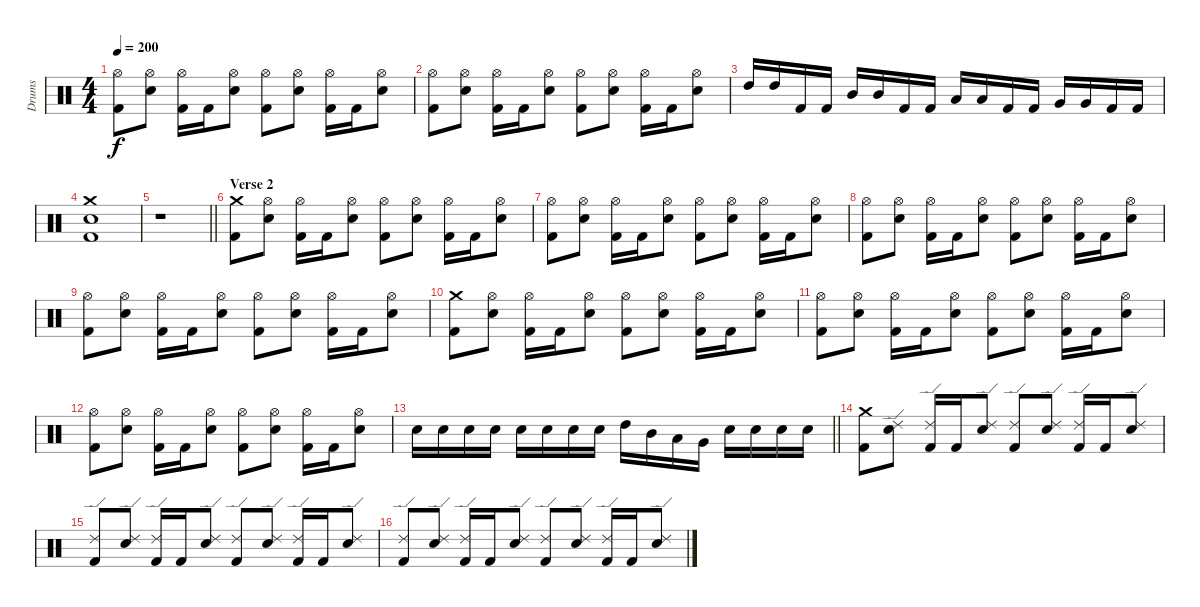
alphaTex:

\track ("Drums" "Drums") {instrument percussion}
\staff {score}
\articulation defaults
\ts (4 4)
\tempo 200
\clef neutral
\ks c
("Kick (hit) 2" "Hi-Hat (open)").8{dy f} ("Snare (hit) 2" "Hi-Hat (open)").8 ("Kick (hit) 2" "Hi-Hat (open)").16 "Kick (hit) 2".16 ("Snare (hit) 2" "Hi-Hat (open)").8 ("Kick (hit) 2" "Hi-Hat (open)").8 ("Snare (hit) 2" "Hi-Hat (open)").8 ("Kick (hit) 2" "Hi-Hat (open)").16 "Kick (hit) 2".16 ("Snare (hit) 2" "Hi-Hat (open)").8 |
("Kick (hit) 2" "Hi-Hat (open)").8 ("Snare (hit) 2" "Hi-Hat (open)").8 ("Kick (hit) 2" "Hi-Hat (open)").16 "Kick (hit) 2".16 ("Snare (hit) 2" "Hi-Hat (open)").8 ("Kick (hit) 2" "Hi-Hat (open)").8 ("Snare (hit) 2" "Hi-Hat (open)").8 ("Kick (hit) 2" "Hi-Hat (open)").16 "Kick (hit) 2".16 ("Snare (hit) 2" "Hi-Hat (open)").8 |
"High Tom (hit)".16 "High Tom (hit)".16 "Kick (hit) 2".16 "Kick (hit) 2".16 "Mid Tom (hit)".16 "Mid Tom (hit)".16 "Kick (hit) 2".16 "Kick (hit) 2".16 "Low Tom (hit)".16 "Low Tom (hit)".16 "Kick (hit) 2".16 "Kick (hit) 2".16 "Very Low Tom (hit)".16 "Very Low Tom (hit)".16 "Kick (hit) 2".16 "Kick (hit) 2".16 |
("Kick (hit) 2" "Snare (hit) 2" "Crash medium (hit)").1 |
\barLineRight lightlight
r.1 |
\section ("" "Verse 2")
("Kick (hit) 2" "Crash medium (hit)").8 ("Snare (hit) 2" "Hi-Hat (open)").8 ("Kick (hit) 2" "Hi-Hat (open)").16 "Kick (hit) 2".16 ("Snare (hit) 2" "Hi-Hat (open)").8 ("Kick (hit) 2" "Hi-Hat (open)").8 ("Snare (hit) 2" "Hi-Hat (open)").8 ("Kick (hit) 2" "Hi-Hat (open)").16 "Kick (hit) 2".16 ("Snare (hit) 2" "Hi-Hat (open)").8 |
("Kick (hit) 2" "Hi-Hat (open)").8 ("Snare (hit) 2" "Hi-Hat (open)").8 ("Kick (hit) 2" "Hi-Hat (open)").16 "Kick (hit) 2".16 ("Snare (hit) 2" "Hi-Hat (open)").8 ("Kick (hit) 2" "Hi-Hat (open)").8 ("Snare (hit) 2" "Hi-Hat (open)").8 ("Kick (hit) 2" "Hi-Hat (open)").16 "Kick (hit) 2".16 ("Snare (hit) 2" "Hi-Hat (open)").8 |
("Kick (hit) 2" "Hi-Hat (open)").8 ("Snare (hit) 2" "Hi-Hat (open)").8 ("Kick (hit) 2" "Hi-Hat (open)").16 "Kick (hit) 2".16 ("Snare (hit) 2" "Hi-Hat (open)").8 ("Kick (hit) 2" "Hi-Hat (open)").8 ("Snare (hit) 2" "Hi-Hat (open)").8 ("Kick (hit) 2" "Hi-Hat (open)").16 "Kick (hit) 2".16 ("Snare (hit) 2" "Hi-Hat (open)").8 |
("Kick (hit) 2" "Hi-Hat (open)").8 ("Snare (hit) 2" "Hi-Hat (open)").8 ("Kick (hit) 2" "Hi-Hat (open)").16 "Kick (hit) 2".16 ("Snare (hit) 2" "Hi-Hat (open)").8 ("Kick (hit) 2" "Hi-Hat (open)").8 ("Snare (hit) 2" "Hi-Hat (open)").8 ("Kick (hit) 2" "Hi-Hat (open)").16 "Kick (hit) 2".16 ("Snare (hit) 2" "Hi-Hat (open)").8 |
("Kick (hit) 2" "Crash medium (hit)").8 ("Snare (hit) 2" "Hi-Hat (open)").8 ("Kick (hit) 2" "Hi-Hat (open)").16 "Kick (hit) 2".16 ("Snare (hit) 2" "Hi-Hat (open)").8 ("Kick (hit) 2" "Hi-Hat (open)").8 ("Snare (hit) 2" "Hi-Hat (open)").8 ("Kick (hit) 2" "Hi-Hat (open)").16 "Kick (hit) 2".16 ("Snare (hit) 2" "Hi-Hat (open)").8 |
("Kick (hit) 2" "Hi-Hat (open)").8 ("Snare (hit) 2" "Hi-Hat (open)").8 ("Kick (hit) 2" "Hi-Hat (open)").16 "Kick (hit) 2".16 ("Snare (hit) 2" "Hi-Hat (open)").8 ("Kick (hit) 2" "Hi-Hat (open)").8 ("Snare (hit) 2" "Hi-Hat (open)").8 ("Kick (hit) 2" "Hi-Hat (open)").16 "Kick (hit) 2".16 ("Snare (hit) 2" "Hi-Hat (open)").8 |
("Kick (hit) 2" "Hi-Hat (open)").8 ("Snare (hit) 2" "Hi-Hat (open)").8 ("Kick (hit) 2" "Hi-Hat (open)").16 "Kick (hit) 2".16 ("Snare (hit) 2" "Hi-Hat (open)").8 ("Kick (hit) 2" "Hi-Hat (open)").8 ("Snare (hit) 2" "Hi-Hat (open)").8 ("Kick (hit) 2" "Hi-Hat (open)").16 "Kick (hit) 2".16 ("Snare (hit) 2" "Hi-Hat (open)").8 |
\barLineRight lightlight "Snare (hit) 2".16 "Snare (hit) 2".16 "Snare (hit) 2".16 "Snare (hit) 2".16 "Snare (hit) 2".16 "Snare (hit) 2".16 "Snare (hit) 2".16 "Snare (hit) 2".16 "High Tom (hit)".16 "Mid Tom (hit)".16 "Low Tom (hit)".16 "Very Low Tom (hit)".16 "Snare (hit) 2".16 "Snare (hit) 2".16 "Snare (hit) 2".16 "Snare (hit) 2".16
|
\section ("" "")
("Kick (hit) 2" "Crash medium (hit)").8 ("Snare (hit) 2" "Ride (edge) 2").8 ("Kick (hit) 2" "Ride (edge) 2").16 "Kick (hit) 2".16 ("Snare (hit) 2" "Ride (edge) 2").8 ("Kick (hit) 2" "Ride (edge) 2").8 ("Snare (hit) 2" "Ride (edge) 2").8 ("Kick (hit) 2" "Ride (edge) 2").16 "Kick (hit) 2".16 ("Snare (hit) 2" "Ride (edge) 2").8 |
("Kick (hit) 2" "Ride (edge) 2").8 ("Snare (hit) 2" "Ride (edge) 2").8 ("Kick (hit) 2" "Ride (edge) 2").16 "Kick (hit) 2".16 ("Snare (hit) 2" "Ride (edge) 2").8 ("Kick (hit) 2" "Ride (edge) 2").8 ("Snare (hit) 2" "Ride (edge) 2").8 ("Kick (hit) 2" "Ride (edge) 2").16 "Kick (hit) 2".16 ("Snare (hit) 2" "Ride (edge) 2").8 |
("Kick (hit) 2" "Ride (edge) 2").8 ("Snare (hit) 2" "Ride (edge) 2").8 ("Kick (hit) 2" "Ride (edge) 2").16 "Kick (hit) 2".16 ("Snare (hit) 2" "Ride (edge) 2").8 ("Kick (hit) 2" "Ride (edge) 2").8 ("Snare (hit) 2" "Ride (edge) 2").8 ("Kick (hit) 2" "Ride (edge) 2").16 "Kick (hit) 2".16 ("Snare (hit) 2" "Ride (edge) 2").8
